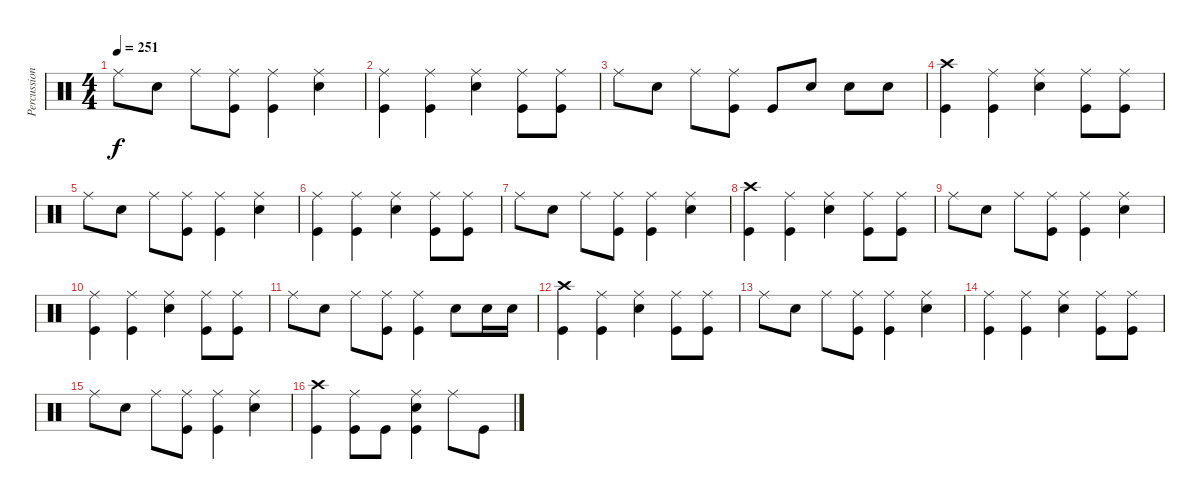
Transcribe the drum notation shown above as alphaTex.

\track ("Percussion" "Percussion") {instrument percussion}
\staff {score}
\articulation defaults
\ts (4 4)
\tempo 251
\clef neutral
\ks c "Ride (middle)".8{dy f} "Snare (hit) 2".8 "Ride (middle)".8
("Ride (middle)" "Kick (hit)").8 ("Ride (middle)" "Kick (hit)").4 ("Ride (middle)" "Snare (hit) 2").4 |
("Ride (middle)" "Kick (hit)").4 ("Ride (middle)" "Kick (hit)").4 ("Ride (middle)" "Snare (hit) 2").4 ("Ride (middle)" "Kick (hit)").8 ("Ride (middle)" "Kick (hit)").8 |
"Ride (middle)".8 "Snare (hit) 2".8 "Ride (middle)".8 ("Ride (middle)" "Kick (hit)").8 "Kick (hit)".8 "Snare (hit) 2".8 "Snare (hit) 2".8 "Snare (hit) 2".8 |
("Crash high (hit)" "Kick (hit)").4 ("Ride (middle)" "Kick (hit)").4 ("Ride (middle)" "Snare (hit) 2").4 ("Ride (middle)" "Kick (hit)").8 ("Ride (middle)" "Kick (hit)").8 |
"Ride (middle)".8 "Snare (hit) 2".8 "Ride (middle)".8 ("Ride (middle)" "Kick (hit)").8 ("Ride (middle)" "Kick (hit)").4 ("Ride (middle)" "Snare (hit) 2").4 |
("Ride (middle)" "Kick (hit)").4 ("Ride (middle)" "Kick (hit)").4 ("Ride (middle)" "Snare (hit) 2").4 ("Ride (middle)" "Kick (hit)").8 ("Ride (middle)" "Kick (hit)").8 |
"Ride (middle)".8 "Snare (hit) 2".8 "Ride (middle)".8 ("Ride (middle)" "Kick (hit)").8 ("Ride (middle)" "Kick (hit)").4 ("Ride (middle)" "Snare (hit) 2").4 |
("Crash high (hit)" "Kick (hit)").4 ("Ride (middle)" "Kick (hit)").4 ("Ride (middle)" "Snare (hit) 2").4 ("Ride (middle)" "Kick (hit)").8 ("Ride (middle)" "Kick (hit)").8 |
"Ride (middle)".8 "Snare (hit) 2".8 "Ride (middle)".8 ("Ride (middle)" "Kick (hit)").8 ("Ride (middle)" "Kick (hit)").4 ("Ride (middle)" "Snare (hit) 2").4 |
("Ride (middle)" "Kick (hit)").4 ("Ride (middle)" "Kick (hit)").4 ("Ride (middle)" "Snare (hit) 2").4 ("Ride (middle)" "Kick (hit)").8 ("Ride (middle)" "Kick (hit)").8 |
"Ride (middle)".8 "Snare (hit) 2".8 "Ride (middle)".8 ("Ride (middle)" "Kick (hit)").8 ("Ride (middle)" "Kick (hit)").4 "Snare (hit) 2".8 "Snare (hit) 2".16 "Snare (hit) 2".16 |
("Crash high (hit)" "Kick (hit)").4 ("Ride (middle)" "Kick (hit)").4 ("Ride (middle)" "Snare (hit) 2").4 ("Ride (middle)" "Kick (hit)").8 ("Ride (middle)" "Kick (hit)").8 |
"Ride (middle)".8 "Snare (hit) 2".8 "Ride (middle)".8 ("Ride (middle)" "Kick (hit)").8 ("Ride (middle)" "Kick (hit)").4 ("Ride (middle)" "Snare (hit) 2").4 |
("Ride (middle)" "Kick (hit)").4 ("Ride (middle)" "Kick (hit)").4 ("Ride (middle)" "Snare (hit) 2").4 ("Ride (middle)" "Kick (hit)").8 ("Ride (middle)" "Kick (hit)").8 |
"Ride (middle)".8 "Snare (hit) 2".8 "Ride (middle)".8 ("Ride (middle)" "Kick (hit)").8 ("Ride (middle)" "Kick (hit)").4 ("Ride (middle)" "Snare (hit) 2").4 |
("Crash high (hit)" "Kick (hit)").4 ("Ride (middle)" "Kick (hit)").8 "Kick (hit)".8 ("Ride (middle)" "Snare (hit) 2" "Kick (hit)").4 "Ride (middle)".8 "Kick (hit)".8
